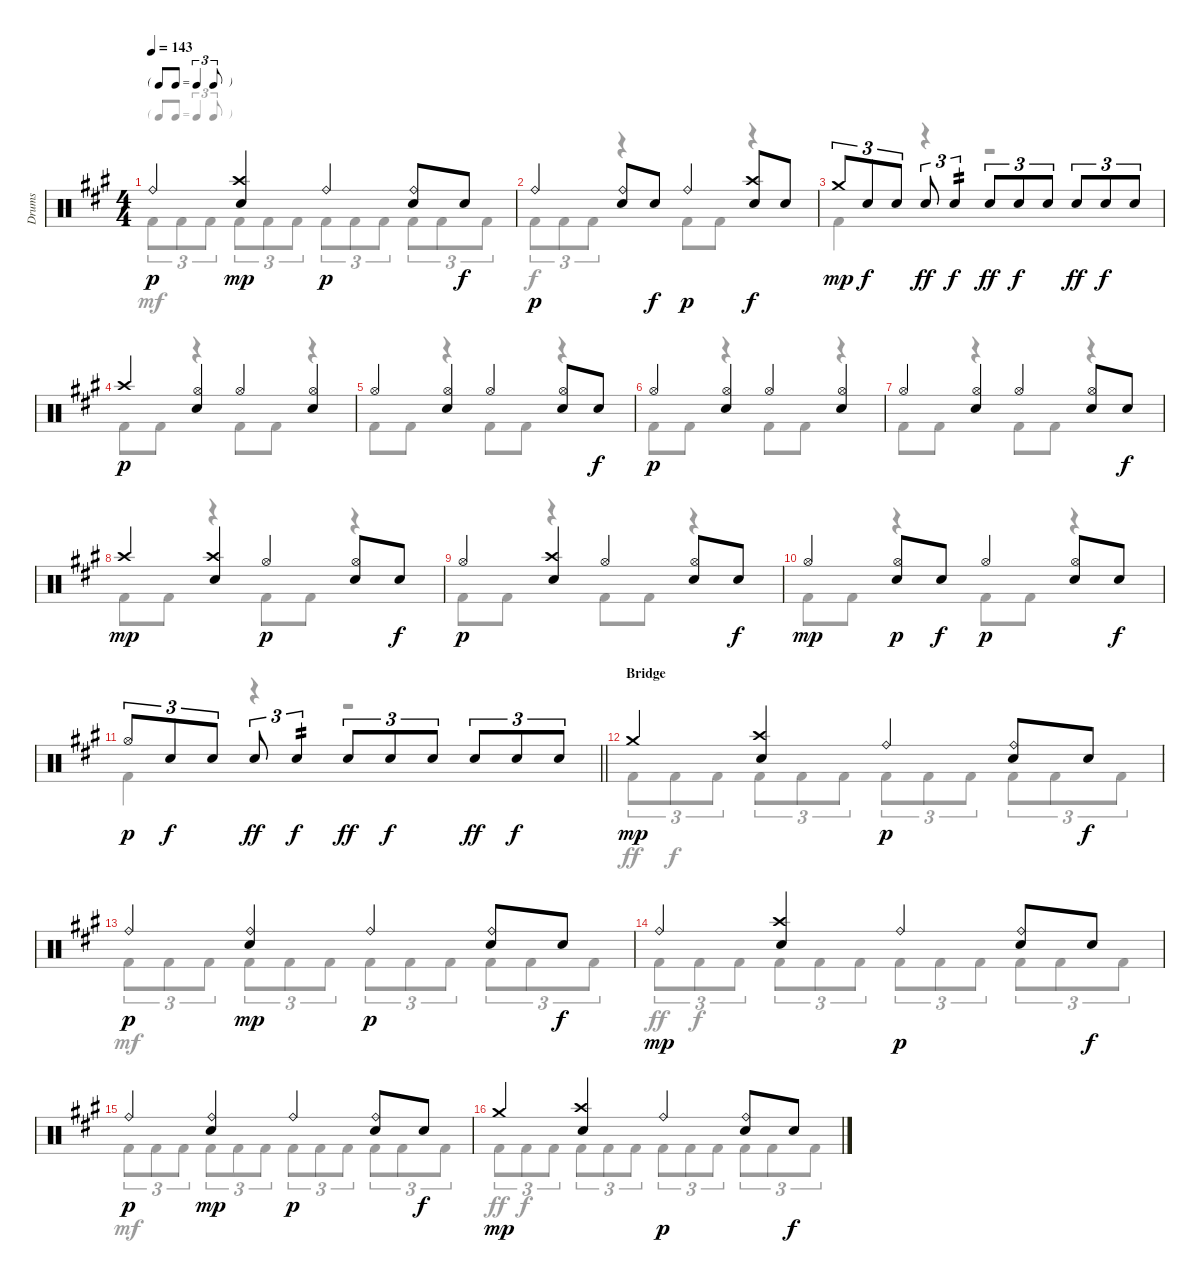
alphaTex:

\track ("Drums" "Drums") {instrument percussion}
\staff {score}
\articulation defaults
\voice
\ts (4 4)
\tf triplet8th
\tempo 143
\clef neutral
\ks a "Ride (bell)".4{dy p}
("Crash high (hit)" "Electric Snare (hit)").4{dy mp} "Ride (bell)".4{dy p} ("Ride (bell)" "Electric Snare (hit)").8 "Electric Snare (hit)".8{dy f} |
"Ride (bell)".4{dy p} ("Ride (bell)" "Electric Snare (hit)").8 "Electric Snare (hit)".8{dy f} "Ride (bell)".4{dy p} ("Crash high (hit)" "Electric Snare (hit)").8{dy f} "Electric Snare (hit)".8 |
"Crash medium (hit)".8{tu (3 2) dy mp} "Electric Snare (hit)".8{tu (3 2) dy f} "Electric Snare (hit)".8{tu (3 2)} "Electric Snare (hit)".8{tu (3 2) dy ff} "Electric Snare (hit)".4{tu (3 2) tp 2 dy f} "Electric Snare (hit)".8{tu (3 2) dy ff} "Electric Snare (hit)".8{tu (3 2) dy f} "Electric Snare (hit)".8{tu (3 2)} "Electric Snare (hit)".8{tu (3 2) dy ff} "Electric Snare (hit)".8{tu (3 2) dy f} "Electric Snare (hit)".8{tu (3 2)} |
"Crash high (hit)".4{dy p} ("Hi-Hat (open)" "Electric Snare (hit)").4 "Hi-Hat (open)".4 ("Hi-Hat (open)" "Electric Snare (hit)").4 |
"Hi-Hat (open)".4 ("Hi-Hat (open)" "Electric Snare (hit)").4 "Hi-Hat (open)".4 ("Hi-Hat (open)" "Electric Snare (hit)").8 "Electric Snare (hit)".8{dy f} |
"Hi-Hat (open)".4{dy p} ("Hi-Hat (open)" "Electric Snare (hit)").4 "Hi-Hat (open)".4 ("Hi-Hat (open)" "Electric Snare (hit)").4 |
"Hi-Hat (open)".4 ("Hi-Hat (open)" "Electric Snare (hit)").4 "Hi-Hat (open)".4 ("Hi-Hat (open)" "Electric Snare (hit)").8 "Electric Snare (hit)".8{dy f} |
"Crash high (hit)".4{dy mp} ("Crash high (hit)" "Electric Snare (hit)").4 "Hi-Hat (open)".4{dy p} ("Hi-Hat (open)" "Electric Snare (hit)").8 "Electric Snare (hit)".8{dy f} |
"Hi-Hat (open)".4{dy p} ("Crash high (hit)" "Electric Snare (hit)").4 "Hi-Hat (open)".4 ("Hi-Hat (open)" "Electric Snare (hit)").8 "Electric Snare (hit)".8{dy f} |
"Hi-Hat (open)".4{dy mp} ("Hi-Hat (open)" "Electric Snare (hit)").8{dy p} "Electric Snare (hit)".8{dy f} "Hi-Hat (open)".4{dy p} ("Hi-Hat (open)" "Electric Snare (hit)").8 "Electric Snare (hit)".8{dy f} |
\barLineRight lightlight "Hi-Hat (open)".8{tu (3 2) dy p} "Electric Snare (hit)".8{tu (3 2) dy f} "Electric Snare (hit)".8{tu (3 2)} "Electric Snare (hit)".8{tu (3 2) dy ff} "Electric Snare (hit)".4{tu (3 2) tp 2 dy f} "Electric Snare (hit)".8{tu (3 2) dy ff} "Electric Snare (hit)".8{tu (3 2) dy f} "Electric Snare (hit)".8{tu (3 2)} "Electric Snare (hit)".8{tu (3 2) dy ff} "Electric Snare (hit)".8{tu (3 2) dy f} "Electric Snare (hit)".8{tu (3 2)}
|
\section ("" "Bridge")
"Crash medium (hit)".4{dy mp} ("Electric Snare (hit)" "Crash high (hit)").4 "Ride (bell)".4{dy p} ("Ride (bell)" "Electric Snare (hit)").8 "Electric Snare (hit)".8{dy f} |
"Ride (bell)".4{dy p} ("Ride (bell)" "Electric Snare (hit)").4{dy mp} "Ride (bell)".4{dy p} ("Ride (bell)" "Electric Snare (hit)").8 "Electric Snare (hit)".8{dy f} |
"Ride (bell)".4{dy mp} ("Electric Snare (hit)" "Crash high (hit)").4 "Ride (bell)".4{dy p} ("Ride (bell)" "Electric Snare (hit)").8 "Electric Snare (hit)".8{dy f} |
"Ride (bell)".4{dy p} ("Ride (bell)" "Electric Snare (hit)").4{dy mp} "Ride (bell)".4{dy p} ("Ride (bell)" "Electric Snare (hit)").8 "Electric Snare (hit)".8{dy f} |
"Crash medium (hit)".4{dy mp} ("Electric Snare (hit)" "Crash high (hit)").4 "Ride (bell)".4{dy p} ("Ride (bell)" "Electric Snare (hit)").8 "Electric Snare (hit)".8{dy f}
\voice
\clef neutral
\ottava regular
\simile none
\ks a "Kick (hit) 2".8{tu (3 2) dy mf} "Kick (hit) 2".8{tu (3 2)} "Kick (hit) 2".8{tu (3 2)} "Kick (hit) 2".8{tu (3 2)} "Kick (hit) 2".8{tu (3 2)} "Kick (hit) 2".8{tu (3 2)} "Kick (hit) 2".8{tu (3 2)} "Kick (hit) 2".8{tu (3 2)} "Kick (hit) 2".8{tu (3 2)} "Kick (hit) 2".8{tu (3 2)} "Kick (hit) 2".8{tu (3 2)} "Kick (hit) 2".8{tu (3 2)}
|
"Kick (hit) 2".8{tu (3 2) dy f} "Kick (hit) 2".8{tu (3 2)} "Kick (hit) 2".8{tu (3 2)} r.4 "Kick (hit) 2".8 "Kick (hit) 2".8 r.4 |
"Kick (hit) 2".4 r.4 r.2 |
"Kick (hit) 2".8 "Kick (hit) 2".8 r.4 "Kick (hit) 2".8 "Kick (hit) 2".8 r.4 |
"Kick (hit) 2".8 "Kick (hit) 2".8 r.4 "Kick (hit) 2".8 "Kick (hit) 2".8 r.4 |
"Kick (hit) 2".8 "Kick (hit) 2".8 r.4 "Kick (hit) 2".8 "Kick (hit) 2".8 r.4 |
"Kick (hit) 2".8 "Kick (hit) 2".8 r.4 "Kick (hit) 2".8 "Kick (hit) 2".8 r.4 |
"Kick (hit) 2".8 "Kick (hit) 2".8 r.4 "Kick (hit) 2".8 "Kick (hit) 2".8 r.4 |
"Kick (hit) 2".8 "Kick (hit) 2".8 r.4 "Kick (hit) 2".8 "Kick (hit) 2".8 r.4 |
"Kick (hit) 2".8 "Kick (hit) 2".8 r.4 "Kick (hit) 2".8 "Kick (hit) 2".8 r.4 |
\barLineRight lightlight "Kick (hit) 2".4
r.4 r.2 |
"Kick (hit) 2".8{tu (3 2) dy ff} "Kick (hit) 2".8{tu (3 2) dy f} "Kick (hit) 2".8{tu (3 2)} "Kick (hit) 2".8{tu (3 2)} "Kick (hit) 2".8{tu (3 2)} "Kick (hit) 2".8{tu (3 2)} "Kick (hit) 2".8{tu (3 2)} "Kick (hit) 2".8{tu (3 2)} "Kick (hit) 2".8{tu (3 2)} "Kick (hit) 2".8{tu (3 2)} "Kick (hit) 2".8{tu (3 2)} "Kick (hit) 2".8{tu (3 2)} |
"Kick (hit) 2".8{tu (3 2) dy mf} "Kick (hit) 2".8{tu (3 2)} "Kick (hit) 2".8{tu (3 2)} "Kick (hit) 2".8{tu (3 2)} "Kick (hit) 2".8{tu (3 2)} "Kick (hit) 2".8{tu (3 2)} "Kick (hit) 2".8{tu (3 2)} "Kick (hit) 2".8{tu (3 2)} "Kick (hit) 2".8{tu (3 2)} "Kick (hit) 2".8{tu (3 2)} "Kick (hit) 2".8{tu (3 2)} "Kick (hit) 2".8{tu (3 2)} |
"Kick (hit) 2".8{tu (3 2) dy ff} "Kick (hit) 2".8{tu (3 2) dy f} "Kick (hit) 2".8{tu (3 2)} "Kick (hit) 2".8{tu (3 2)} "Kick (hit) 2".8{tu (3 2)} "Kick (hit) 2".8{tu (3 2)} "Kick (hit) 2".8{tu (3 2)} "Kick (hit) 2".8{tu (3 2)} "Kick (hit) 2".8{tu (3 2)} "Kick (hit) 2".8{tu (3 2)} "Kick (hit) 2".8{tu (3 2)} "Kick (hit) 2".8{tu (3 2)} |
"Kick (hit) 2".8{tu (3 2) dy mf} "Kick (hit) 2".8{tu (3 2)} "Kick (hit) 2".8{tu (3 2)} "Kick (hit) 2".8{tu (3 2)} "Kick (hit) 2".8{tu (3 2)} "Kick (hit) 2".8{tu (3 2)} "Kick (hit) 2".8{tu (3 2)} "Kick (hit) 2".8{tu (3 2)} "Kick (hit) 2".8{tu (3 2)} "Kick (hit) 2".8{tu (3 2)} "Kick (hit) 2".8{tu (3 2)} "Kick (hit) 2".8{tu (3 2)} |
"Kick (hit) 2".8{tu (3 2) dy ff} "Kick (hit) 2".8{tu (3 2) dy f} "Kick (hit) 2".8{tu (3 2)} "Kick (hit) 2".8{tu (3 2)} "Kick (hit) 2".8{tu (3 2)} "Kick (hit) 2".8{tu (3 2)} "Kick (hit) 2".8{tu (3 2)} "Kick (hit) 2".8{tu (3 2)} "Kick (hit) 2".8{tu (3 2)} "Kick (hit) 2".8{tu (3 2)} "Kick (hit) 2".8{tu (3 2)} "Kick (hit) 2".8{tu (3 2)}
